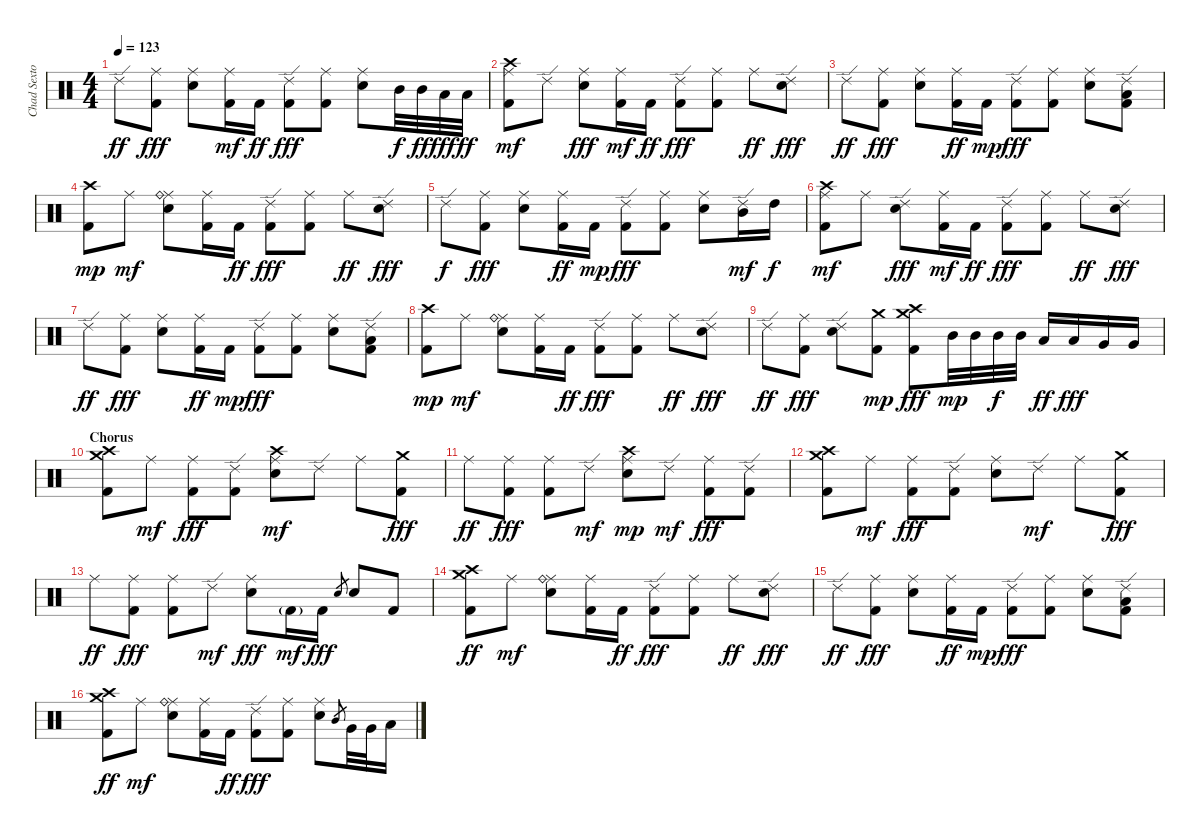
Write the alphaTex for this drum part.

\track ("Chad Sexton (Drums)" "Chad Sexto") {instrument percussion}
\staff {score}
\articulation defaults
\ts (4 4)
\tempo 123
\clef neutral
\ks c "Ride (edge) 2".8{dy ff}
("Ride (middle)" "Kick (hit) 2").8{dy fff} ("Ride (middle)" "Electric Snare (hit)").8 ("Ride (middle)" "Kick (hit) 2").16{dy mf} "Kick (hit) 2".16{dy ff} ("Ride (edge) 2" "Kick (hit) 2").8{dy fff} ("Ride (middle)" "Kick (hit) 2").8 ("Ride (middle)" "Electric Snare (hit)").8 "Mid Tom (hit)".32{dy f} "Mid Tom (hit)".32{dy ff} "Low Tom (hit)".32{dy fff} "Low Tom (hit)".32{dy ff} |
("Ride (middle)" "Kick (hit) 2" "Crash high (hit)").8{dy mf volume 13} "Ride (edge) 2".8 ("Ride (middle)" "Electric Snare (hit)").8{dy fff} ("Ride (middle)" "Kick (hit) 2").16{dy mf} "Kick (hit) 2".16{dy ff} ("Ride (edge) 2" "Kick (hit) 2").8{dy fff} ("Ride (middle)" "Kick (hit) 2").8 "Ride (middle)".8{dy ff} ("Ride (edge) 2" "Electric Snare (hit)").8{dy fff} |
"Ride (edge) 2".8{dy ff} ("Ride (middle)" "Kick (hit) 2").8{dy fff} ("Ride (middle)" "Electric Snare (hit)").8 ("Ride (middle)" "Kick (hit) 2").16{dy ff} "Kick (hit) 2".16{dy mp} ("Ride (edge) 2" "Kick (hit) 2").8{dy fff} ("Ride (middle)" "Kick (hit) 2").8 ("Ride (middle)" "Electric Snare (hit)").8 ("Ride (edge) 2" "Kick (hit) 2" "Low Tom (hit)").8 |
("Kick (hit) 2" "Crash high (hit)").8{dy mp} "Ride (middle)".8{dy mf} ("Ride (middle)" "Electric Snare (hit)" "Ride (bell)").8 ("Ride (middle)" "Kick (hit) 2").16 "Kick (hit) 2".16{dy ff} ("Ride (edge) 2" "Kick (hit) 2").8{dy fff} ("Ride (middle)" "Kick (hit) 2").8 "Ride (middle)".8{dy ff} ("Ride (edge) 2" "Electric Snare (hit)").8{dy fff} |
"Ride (edge) 2".8{dy f} ("Ride (middle)" "Kick (hit) 2").8{dy fff} ("Ride (middle)" "Electric Snare (hit)").8 ("Ride (middle)" "Kick (hit) 2").16{dy ff} "Kick (hit) 2".16{dy mp} ("Ride (edge) 2" "Kick (hit) 2").8{dy fff} ("Ride (middle)" "Kick (hit) 2").8 ("Ride (middle)" "Electric Snare (hit)").8 ("Ride (edge) 2" "Mid Tom (hit)").16{dy mf} "High Tom (hit)".16{dy f} |
("Ride (middle)" "Kick (hit) 2" "Crash high (hit)").8{dy mf volume 13} "Ride (middle)".8 ("Ride (edge) 2" "Electric Snare (hit)").8{dy fff} ("Ride (middle)" "Kick (hit) 2").16{dy mf} "Kick (hit) 2".16{dy ff} ("Ride (edge) 2" "Kick (hit) 2").8{dy fff} ("Ride (middle)" "Kick (hit) 2").8 "Ride (middle)".8{dy ff} ("Ride (edge) 2" "Electric Snare (hit)").8{dy fff} |
"Ride (edge) 2".8{dy ff} ("Ride (middle)" "Kick (hit) 2").8{dy fff} ("Ride (middle)" "Electric Snare (hit)").8 ("Ride (middle)" "Kick (hit) 2").16{dy ff} "Kick (hit) 2".16{dy mp} ("Ride (edge) 2" "Kick (hit) 2").8{dy fff} ("Ride (middle)" "Kick (hit) 2").8 ("Ride (middle)" "Electric Snare (hit)").8 ("Ride (edge) 2" "Kick (hit) 2" "Low Tom (hit)").8 |
("Kick (hit) 2" "Crash high (hit)").8{dy mp} "Ride (middle)".8{dy mf} ("Ride (middle)" "Electric Snare (hit)" "Ride (bell)").8 ("Ride (middle)" "Kick (hit) 2").16 "Kick (hit) 2".16{dy ff} ("Ride (edge) 2" "Kick (hit) 2").8{dy fff} ("Ride (middle)" "Kick (hit) 2").8 "Ride (middle)".8{dy ff} ("Ride (edge) 2" "Electric Snare (hit)").8{dy fff} |
"Ride (edge) 2".8{dy ff} ("Ride (middle)" "Kick (hit) 2").8{dy fff} ("Ride (edge) 2" "Electric Snare (hit)").8 ("Crash medium (hit)" "Kick (hit) 2").8{dy mp} ("Crash high (hit)" "Kick (hit) 2" "Crash medium (hit)").8{dy fff} "Mid Tom (hit)".32{dy mp} "Mid Tom (hit)".32 "Mid Tom (hit)".32{dy f} "Mid Tom (hit)".32 "Low Tom (hit)".16{dy ff} "Low Tom (hit)".16{dy fff} "Very Low Tom (hit)".16 "Very Low Tom (hit)".16 |
\section ("" "Chorus")
("Crash high (hit)" "Kick (hit) 2" "Crash medium (hit)").8{volume 13} "Ride (middle)".8{dy mf} ("Ride (middle)" "Kick (hit) 2").8{dy fff} ("Ride (edge) 2" "Kick (hit) 2").8 ("Ride (middle)" "Electric Snare (hit)" "Crash high (hit)").8{dy mf} "Ride (edge) 2".8 "Ride (middle)".8 ("Crash medium (hit)" "Kick (hit) 2").8{dy fff} |
"Ride (middle)".8{dy ff} ("Ride (middle)" "Kick (hit) 2").8{dy fff} ("Ride (middle)" "Kick (hit) 2").8 "Ride (edge) 2".8{dy mf} ("Ride (middle)" "Electric Snare (hit)" "Crash high (hit)").8{dy mp} "Ride (edge) 2".8{dy mf} ("Ride (middle)" "Kick (hit) 2").8{dy fff} ("Ride (edge) 2" "Kick (hit) 2").8 |
("Crash high (hit)" "Kick (hit) 2" "Crash medium (hit)").8 "Ride (middle)".8{dy mf} ("Ride (middle)" "Kick (hit) 2").8{dy fff} ("Ride (edge) 2" "Kick (hit) 2").8 ("Ride (middle)" "Electric Snare (hit)").8 "Ride (edge) 2".8{dy mf} "Ride (middle)".8 ("Crash medium (hit)" "Kick (hit) 2").8{dy fff} |
"Ride (middle)".8{dy ff} ("Ride (middle)" "Kick (hit) 2").8{dy fff} ("Ride (middle)" "Kick (hit) 2").8 "Ride (edge) 2".8{dy mf} ("Ride (middle)" "Electric Snare (hit)").8{dy fff} "Kick (hit) 2"{g}.16{dy mf} "Kick (hit) 2".16{dy fff} "Electric Snare (hit)".8{gr} "Electric Snare (hit)".8 "Kick (hit) 2".8 |
("Crash medium (hit)" "Kick (hit) 2" "Crash high (hit)").8{dy ff} "Ride (middle)".8{dy mf} ("Ride (middle)" "Electric Snare (hit)" "Ride (bell)").8 ("Ride (middle)" "Kick (hit) 2").16 "Kick (hit) 2".16{dy ff} ("Ride (edge) 2" "Kick (hit) 2").8{dy fff} ("Ride (middle)" "Kick (hit) 2").8 "Ride (middle)".8{dy ff} ("Ride (edge) 2" "Electric Snare (hit)").8{dy fff} |
"Ride (edge) 2".8{dy ff} ("Ride (middle)" "Kick (hit) 2").8{dy fff} ("Ride (middle)" "Electric Snare (hit)").8 ("Ride (middle)" "Kick (hit) 2").16{dy ff} "Kick (hit) 2".16{dy mp} ("Ride (edge) 2" "Kick (hit) 2").8{dy fff} ("Ride (middle)" "Kick (hit) 2").8 ("Ride (middle)" "Electric Snare (hit)").8 ("Ride (edge) 2" "Kick (hit) 2" "Low Tom (hit)").8 |
("Crash medium (hit)" "Kick (hit) 2" "Crash high (hit)").8{dy ff} "Ride (middle)".8{dy mf} ("Ride (middle)" "Electric Snare (hit)" "Ride (bell)").8 ("Ride (middle)" "Kick (hit) 2").16 "Kick (hit) 2".16{dy ff} ("Ride (edge) 2" "Kick (hit) 2").8{dy fff} ("Ride (middle)" "Kick (hit) 2").8 ("Ride (middle)" "Electric Snare (hit)").8 "Mid Tom (hit)".8{gr} "Very Low Tom (hit)".32 "Very Low Tom (hit)".32 "Low Tom (hit)".16
